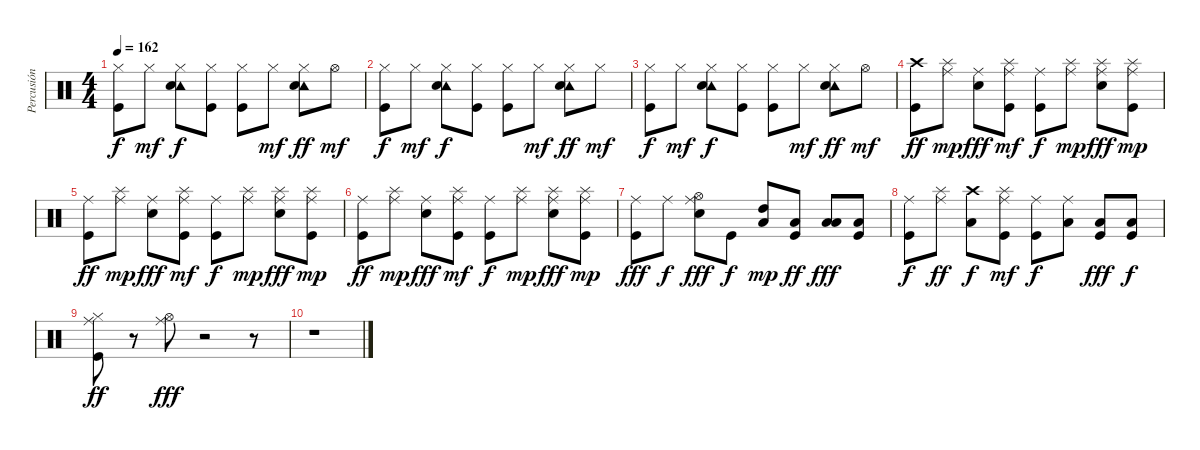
\track ("Percusión" "Percusión") {instrument percussion}
\staff {score}
\articulation defaults
\ts (4 4)
\tempo 162
\clef neutral
\ks c
("Hi-Hat (closed)" "Kick (hit)").8{dy f} "Hi-Hat (closed)".8{dy mf} ("Hi-Hat (closed)" "Tambourine (hit)" "Snare (hit) 2").8{dy f} ("Hi-Hat (closed)" "Kick (hit)").8 ("Hi-Hat (closed)" "Kick (hit)").8 "Hi-Hat (closed)".8{dy mf} ("Hi-Hat (closed)" "Tambourine (hit)" "Snare (hit) 2").8{dy ff} "Hi-Hat (open)".8{dy mf} |
("Hi-Hat (closed)" "Kick (hit)").8{dy f} "Hi-Hat (closed)".8{dy mf} ("Hi-Hat (closed)" "Tambourine (hit)" "Snare (hit) 2").8{dy f} ("Hi-Hat (closed)" "Kick (hit)").8 ("Hi-Hat (closed)" "Kick (hit)").8 "Hi-Hat (closed)".8{dy mf} ("Hi-Hat (closed)" "Tambourine (hit)" "Snare (hit) 2").8{dy ff} "Hi-Hat (closed)".8{dy mf} |
("Hi-Hat (closed)" "Kick (hit)").8{dy f} "Hi-Hat (closed)".8{dy mf} ("Hi-Hat (closed)" "Tambourine (hit)" "Snare (hit) 2").8{dy f} ("Hi-Hat (closed)" "Kick (hit)").8 ("Hi-Hat (closed)" "Kick (hit)").8 "Hi-Hat (closed)".8{dy mf} ("Hi-Hat (closed)" "Tambourine (hit)" "Snare (hit) 2").8{dy ff} "Hi-Hat (open)".8{dy mf} |
("Crash high (hit)" "Kick (hit)").8{dy ff} ("Ride (middle)" "Splash (hit)").8{dy mp} ("Ride (middle)" "Snare (hit) 2").8{dy fff} ("Ride (middle)" "Splash (hit)" "Kick (hit)").8{dy mf} ("Ride (middle)" "Kick (hit)").8{dy f} ("Ride (middle)" "Splash (hit)").8{dy mp} ("Ride (middle)" "Splash (hit)" "Snare (hit) 2").8{dy fff} ("Ride (middle)" "Splash (hit)" "Kick (hit)").8{dy mp} |
("Ride (middle)" "Kick (hit)").8{dy ff} ("Ride (middle)" "Splash (hit)").8{dy mp} ("Ride (middle)" "Snare (hit) 2").8{dy fff} ("Ride (middle)" "Splash (hit)" "Kick (hit)").8{dy mf} ("Ride (middle)" "Kick (hit)").8{dy f} ("Ride (middle)" "Splash (hit)").8{dy mp} ("Ride (middle)" "Splash (hit)" "Snare (hit) 2").8{dy fff} ("Ride (middle)" "Splash (hit)" "Kick (hit)").8{dy mp} |
("Ride (middle)" "Kick (hit)").8{dy ff} ("Ride (middle)" "Splash (hit)").8{dy mp} ("Ride (middle)" "Snare (hit) 2").8{dy fff} ("Ride (middle)" "Splash (hit)" "Kick (hit)").8{dy mf} ("Ride (middle)" "Kick (hit)").8{dy f} ("Ride (middle)" "Splash (hit)").8{dy mp} ("Ride (middle)" "Splash (hit)" "Snare (hit) 2").8{dy fff} ("Ride (middle)" "Splash (hit)" "Kick (hit)").8{dy mp} |
("Ride (middle)" "Kick (hit)").8{dy fff} "Ride (middle)".8{dy f} ("Ride (middle)" "Hi-Hat (open)" "Snare (hit) 2").8{dy fff} "Kick (hit)".8{dy f} ("High Tom (hit)" "Low Tom (hit)").8{dy mp} ("Low Tom (hit)" "Kick (hit)").8{dy ff} ("Low Tom (hit)" "Low Floor Tom (hit)").8{dy fff} ("Kick (hit)" "Low Floor Tom (hit)").8 |
("Ride (middle)" "Kick (hit)").8{dy f} ("Ride (middle)" "Splash (hit)").8{dy ff} ("Crash high (hit)" "Low Tom (hit)").8{dy f} ("Ride (middle)" "Splash (hit)" "Kick (hit)").8{dy mf} ("Ride (middle)" "Kick (hit)").8{dy f} ("Ride (middle)" "Low Tom (hit)").8 ("Low Tom (hit)" "Kick (hit)").8{dy fff} ("Low Tom (hit)" "Kick (hit)").8{dy f} |
("Hi-Hat (closed)" "Ride (middle)" "Kick (hit)").8{dy ff} r.8 ("Hi-Hat (open)" "Ride (middle)").8{dy fff} r.2 r.8 |
r.1
